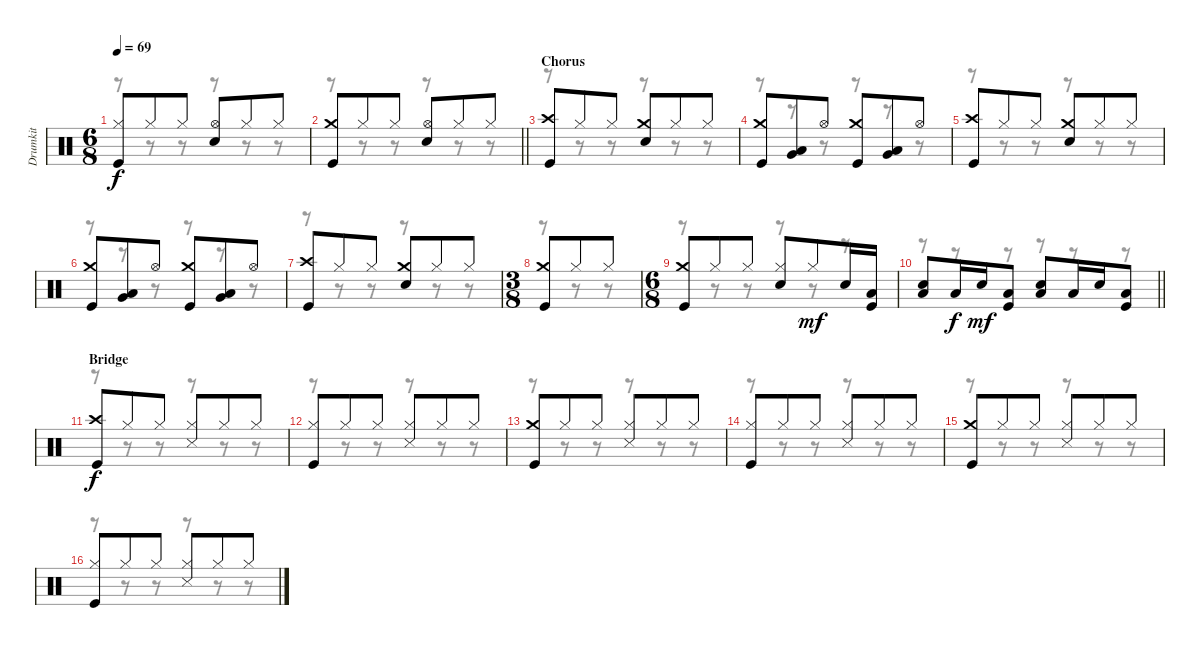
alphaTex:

\track ("Drumkit" "Drumkit") {instrument percussion}
\staff {score}
\articulation defaults
\voice
\ts (6 8)
\tempo 69
\clef neutral
\ks c
("Hi-Hat (closed)" "Kick (hit)").8{dy f} "Hi-Hat (closed)".8 "Hi-Hat (closed)".8 ("Hi-Hat (open)" "Snare (hit) 2").8 "Hi-Hat (closed)".8 "Hi-Hat (closed)".8 |
\barLineRight lightlight
("Crash medium (hit)" "Kick (hit)").8 "Hi-Hat (closed)".8 "Hi-Hat (closed)".8 ("Hi-Hat (open)" "Snare (hit) 2").8 "Hi-Hat (closed)".8 "Hi-Hat (closed)".8 |
\section ("" "Chorus")
("Crash high (hit)" "Kick (hit)").8 "Hi-Hat (closed)".8 "Hi-Hat (closed)".8 ("Crash medium (hit)" "Snare (hit) 2").8 "Hi-Hat (closed)".8 "Hi-Hat (closed)".8 |
("Crash medium (hit)" "Kick (hit)").8 ("Low Tom (hit)" "Very Low Tom (hit)").8 "Hi-Hat (open)".8 ("Crash medium (hit)" "Kick (hit)").8 ("Low Tom (hit)" "Very Low Tom (hit)").8 "Hi-Hat (open)".8 |
("Crash high (hit)" "Kick (hit)").8 "Hi-Hat (closed)".8 "Hi-Hat (closed)".8 ("Crash medium (hit)" "Snare (hit) 2").8 "Hi-Hat (closed)".8 "Hi-Hat (closed)".8 |
("Crash medium (hit)" "Kick (hit)").8 ("Low Tom (hit)" "Very Low Tom (hit)").8 "Hi-Hat (open)".8 ("Crash medium (hit)" "Kick (hit)").8 ("Low Tom (hit)" "Very Low Tom (hit)").8 "Hi-Hat (open)".8 |
("Crash high (hit)" "Kick (hit)").8 "Hi-Hat (closed)".8 "Hi-Hat (closed)".8 ("Crash medium (hit)" "Snare (hit) 2").8 "Hi-Hat (closed)".8 "Hi-Hat (closed)".8 |
\ts (3 8)
("Crash medium (hit)" "Kick (hit)").8 "Hi-Hat (closed)".8 "Hi-Hat (closed)".8 |
\ts (6 8)
("Crash medium (hit)" "Kick (hit)").8 "Hi-Hat (closed)".8 "Hi-Hat (closed)".8 ("Hi-Hat (closed)" "Snare (hit) 2").8 "Hi-Hat (closed)".8{dy mf} "Snare (hit) 2".16 ("Kick (hit)" "Low Tom (hit)").16 |
\barLineRight lightlight
("Snare (hit) 2" "Low Tom (hit)").8 "Low Tom (hit)".16{dy f} "Snare (hit) 2".16{dy mf} ("Low Tom (hit)" "Kick (hit)").8 ("Snare (hit) 2" "Low Tom (hit)").8 "Low Tom (hit)".16 "Snare (hit) 2".16 ("Low Tom (hit)" "Kick (hit)").8 |
\section ("" "Bridge")
("Crash high (hit)" "Kick (hit)").8{dy f} "Hi-Hat (closed)".8 "Hi-Hat (closed)".8 ("Hi-Hat (closed)" "Snare (side stick) 3").8 "Hi-Hat (closed)".8 "Hi-Hat (closed)".8 |
("Hi-Hat (closed)" "Kick (hit)").8 "Hi-Hat (closed)".8 "Hi-Hat (closed)".8 ("Hi-Hat (closed)" "Snare (side stick) 3").8 "Hi-Hat (closed)".8 "Hi-Hat (closed)".8 |
("Crash medium (hit)" "Kick (hit)").8 "Hi-Hat (closed)".8 "Hi-Hat (closed)".8 ("Hi-Hat (closed)" "Snare (side stick) 3").8 "Hi-Hat (closed)".8 "Hi-Hat (closed)".8 |
("Hi-Hat (closed)" "Kick (hit)").8 "Hi-Hat (closed)".8 "Hi-Hat (closed)".8 ("Hi-Hat (closed)" "Snare (side stick) 3").8 "Hi-Hat (closed)".8 "Hi-Hat (closed)".8 |
("Crash medium (hit)" "Kick (hit)").8 "Hi-Hat (closed)".8 "Hi-Hat (closed)".8 ("Hi-Hat (closed)" "Snare (side stick) 3").8 "Hi-Hat (closed)".8 "Hi-Hat (closed)".8 |
("Hi-Hat (closed)" "Kick (hit)").8 "Hi-Hat (closed)".8 "Hi-Hat (closed)".8 ("Hi-Hat (closed)" "Snare (side stick) 3").8 "Hi-Hat (closed)".8 "Hi-Hat (closed)".8
\voice
\clef neutral
\ottava regular
\simile none
\ks c
r.8{dy f} r.8 r.8 r.8 r.8 r.8 |
\barLineRight lightlight
r.8 r.8 r.8 r.8 r.8 r.8 |
r.8 r.8 r.8 r.8 r.8 r.8 |
r.8 r.8 r.8 r.8 r.8 r.8 |
r.8 r.8 r.8 r.8 r.8 r.8 |
r.8 r.8 r.8 r.8 r.8 r.8 |
r.8 r.8 r.8 r.8 r.8 r.8 |
r.8 r.8 r.8 |
r.8 r.8 r.8 r.8 r.8 r.8 |
\barLineRight lightlight
r.8 r.8 r.8 r.8 r.8 r.8 |
r.8 r.8 r.8 r.8 r.8 r.8 |
r.8 r.8 r.8 r.8 r.8 r.8 |
r.8 r.8 r.8 r.8 r.8 r.8 |
r.8 r.8 r.8 r.8 r.8 r.8 |
r.8 r.8 r.8 r.8 r.8 r.8 |
r.8 r.8 r.8 r.8 r.8 r.8
